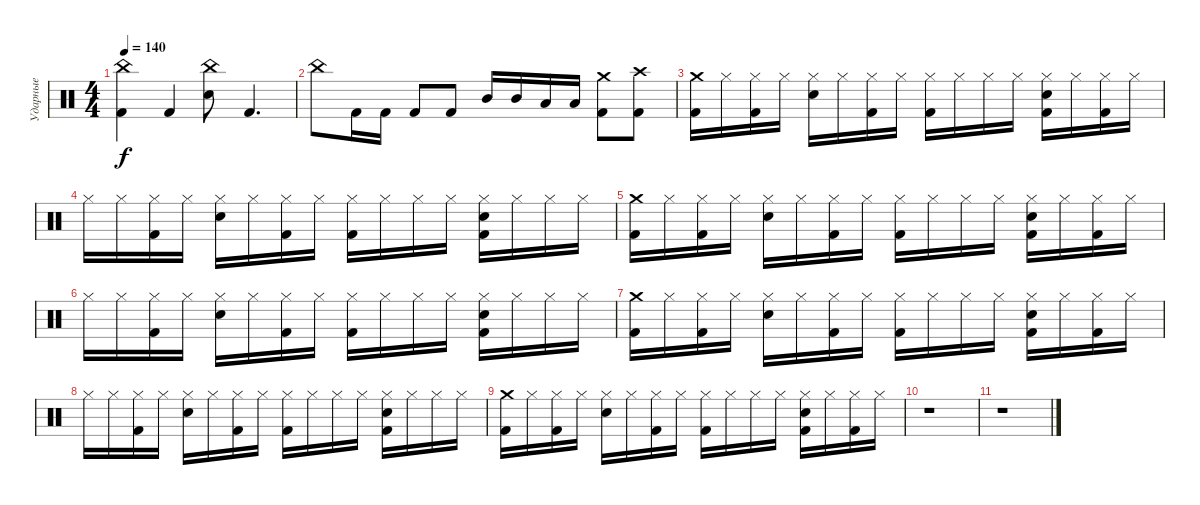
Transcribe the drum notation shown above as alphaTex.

\track ("Ударные" "Ударные") {instrument percussion}
\staff {score}
\articulation defaults
\ts (4 4)
\tempo 140
\clef neutral
\ks c
("China (hit)" "Kick (hit) 2").4{dy f} "Kick (hit) 2".4 ("China (hit)" "Electric Snare (hit)").8 "Kick (hit) 2".4{d} |
"China (hit)".8 "Kick (hit) 2".16 "Kick (hit) 2".16 "Kick (hit) 2".8 "Kick (hit) 2".8 "Mid Tom (hit)".16 "Mid Tom (hit)".16 "Low Tom (hit)".16 "Low Tom (hit)".16 ("Crash medium (hit)" "Kick (hit) 2").8 ("Crash high (hit)" "Kick (hit) 2").8 |
("Crash medium (hit)" "Kick (hit) 2").16 "Hi-Hat (closed)".16 ("Hi-Hat (closed)" "Kick (hit) 2").16 "Hi-Hat (closed)".16 ("Hi-Hat (closed)" "Electric Snare (hit)").16 "Hi-Hat (closed)".16 ("Hi-Hat (closed)" "Kick (hit) 2").16 "Hi-Hat (closed)".16 ("Hi-Hat (closed)" "Kick (hit) 2").16 "Hi-Hat (closed)".16 "Hi-Hat (closed)".16 "Hi-Hat (closed)".16 ("Hi-Hat (closed)" "Electric Snare (hit)" "Kick (hit) 2").16 "Hi-Hat (closed)".16 ("Hi-Hat (closed)" "Kick (hit) 2").16 "Hi-Hat (closed)".16 |
"Hi-Hat (closed)".16 "Hi-Hat (closed)".16 ("Hi-Hat (closed)" "Kick (hit) 2").16 "Hi-Hat (closed)".16 ("Hi-Hat (closed)" "Electric Snare (hit)").16 "Hi-Hat (closed)".16 ("Hi-Hat (closed)" "Kick (hit) 2").16 "Hi-Hat (closed)".16 ("Hi-Hat (closed)" "Kick (hit) 2").16 "Hi-Hat (closed)".16 "Hi-Hat (closed)".16 "Hi-Hat (closed)".16 ("Hi-Hat (closed)" "Electric Snare (hit)" "Kick (hit) 2").16 "Hi-Hat (closed)".16 "Hi-Hat (closed)".16 "Hi-Hat (closed)".16 |
("Crash medium (hit)" "Kick (hit) 2").16 "Hi-Hat (closed)".16 ("Hi-Hat (closed)" "Kick (hit) 2").16 "Hi-Hat (closed)".16 ("Hi-Hat (closed)" "Electric Snare (hit)").16 "Hi-Hat (closed)".16 ("Hi-Hat (closed)" "Kick (hit) 2").16 "Hi-Hat (closed)".16 ("Hi-Hat (closed)" "Kick (hit) 2").16 "Hi-Hat (closed)".16 "Hi-Hat (closed)".16 "Hi-Hat (closed)".16 ("Hi-Hat (closed)" "Electric Snare (hit)" "Kick (hit) 2").16 "Hi-Hat (closed)".16 ("Hi-Hat (closed)" "Kick (hit) 2").16 "Hi-Hat (closed)".16 |
"Hi-Hat (closed)".16 "Hi-Hat (closed)".16 ("Hi-Hat (closed)" "Kick (hit) 2").16 "Hi-Hat (closed)".16 ("Hi-Hat (closed)" "Electric Snare (hit)").16 "Hi-Hat (closed)".16 ("Hi-Hat (closed)" "Kick (hit) 2").16 "Hi-Hat (closed)".16 ("Hi-Hat (closed)" "Kick (hit) 2").16 "Hi-Hat (closed)".16 "Hi-Hat (closed)".16 "Hi-Hat (closed)".16 ("Hi-Hat (closed)" "Electric Snare (hit)" "Kick (hit) 2").16 "Hi-Hat (closed)".16 "Hi-Hat (closed)".16 "Hi-Hat (closed)".16 |
("Crash medium (hit)" "Kick (hit) 2").16 "Hi-Hat (closed)".16 ("Hi-Hat (closed)" "Kick (hit) 2").16 "Hi-Hat (closed)".16 ("Hi-Hat (closed)" "Electric Snare (hit)").16 "Hi-Hat (closed)".16 ("Hi-Hat (closed)" "Kick (hit) 2").16 "Hi-Hat (closed)".16 ("Hi-Hat (closed)" "Kick (hit) 2").16 "Hi-Hat (closed)".16 "Hi-Hat (closed)".16 "Hi-Hat (closed)".16 ("Hi-Hat (closed)" "Electric Snare (hit)" "Kick (hit) 2").16 "Hi-Hat (closed)".16 ("Hi-Hat (closed)" "Kick (hit) 2").16 "Hi-Hat (closed)".16 |
"Hi-Hat (closed)".16 "Hi-Hat (closed)".16 ("Hi-Hat (closed)" "Kick (hit) 2").16 "Hi-Hat (closed)".16 ("Hi-Hat (closed)" "Electric Snare (hit)").16 "Hi-Hat (closed)".16 ("Hi-Hat (closed)" "Kick (hit) 2").16 "Hi-Hat (closed)".16 ("Hi-Hat (closed)" "Kick (hit) 2").16 "Hi-Hat (closed)".16 "Hi-Hat (closed)".16 "Hi-Hat (closed)".16 ("Hi-Hat (closed)" "Electric Snare (hit)" "Kick (hit) 2").16 "Hi-Hat (closed)".16 "Hi-Hat (closed)".16 "Hi-Hat (closed)".16 |
("Crash medium (hit)" "Kick (hit) 2").16 "Hi-Hat (closed)".16 ("Hi-Hat (closed)" "Kick (hit) 2").16 "Hi-Hat (closed)".16 ("Hi-Hat (closed)" "Electric Snare (hit)").16 "Hi-Hat (closed)".16 ("Hi-Hat (closed)" "Kick (hit) 2").16 "Hi-Hat (closed)".16 ("Hi-Hat (closed)" "Kick (hit) 2").16 "Hi-Hat (closed)".16 "Hi-Hat (closed)".16 "Hi-Hat (closed)".16 ("Hi-Hat (closed)" "Electric Snare (hit)" "Kick (hit) 2").16 "Hi-Hat (closed)".16 ("Hi-Hat (closed)" "Kick (hit) 2").16 "Hi-Hat (closed)".16 |
r.1 |
r.1
